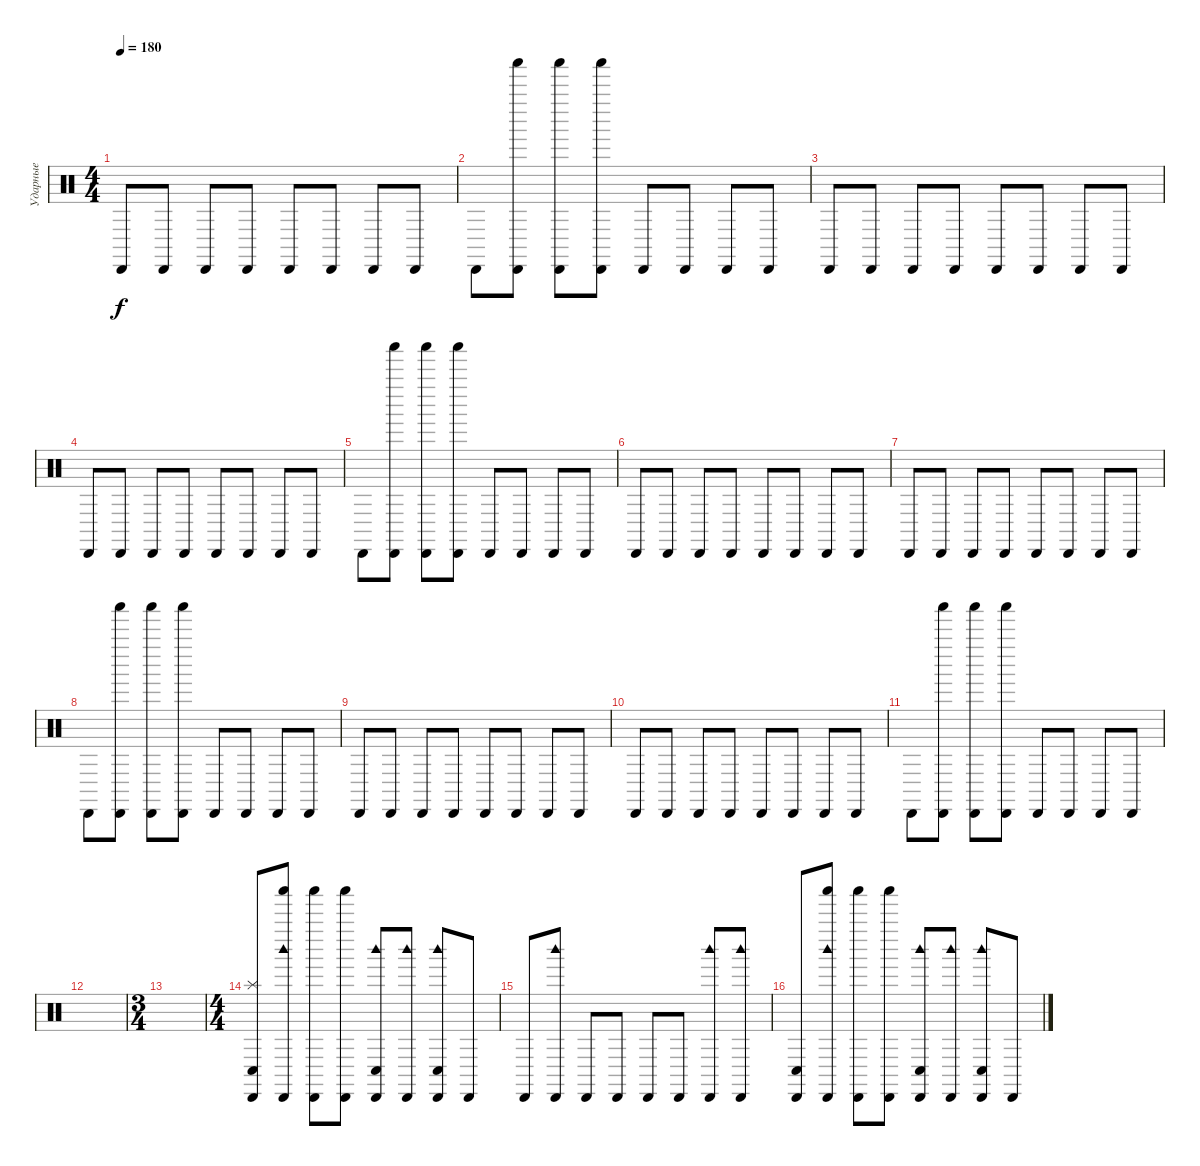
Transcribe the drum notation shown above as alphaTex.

\track ("Ударные" "Ударные") {instrument percussion}
\staff {score}
\articulation defaults
\ts (4 4)
\tempo 180
\clef neutral
\ks c "Cabasa (hit)".8{dy f} "Cabasa (hit)".8 "Cabasa (hit)".8 "Cabasa (hit)".8 "Cabasa (hit)".8 "Cabasa (hit)".8 "Cabasa (hit)".8 "Cabasa (hit)".8
|
"Cabasa (hit)".8 ("Shaker (hit)" "Cabasa (hit)").8 ("Shaker (hit)" "Cabasa (hit)").8 ("Shaker (hit)" "Cabasa (hit)").8 "Cabasa (hit)".8 "Cabasa (hit)".8 "Cabasa (hit)".8 "Cabasa (hit)".8 |
"Cabasa (hit)".8 "Cabasa (hit)".8 "Cabasa (hit)".8 "Cabasa (hit)".8 "Cabasa (hit)".8 "Cabasa (hit)".8 "Cabasa (hit)".8 "Cabasa (hit)".8 |
"Cabasa (hit)".8 "Cabasa (hit)".8 "Cabasa (hit)".8 "Cabasa (hit)".8 "Cabasa (hit)".8 "Cabasa (hit)".8 "Cabasa (hit)".8 "Cabasa (hit)".8 |
"Cabasa (hit)".8 ("Shaker (hit)" "Cabasa (hit)").8 ("Shaker (hit)" "Cabasa (hit)").8 ("Shaker (hit)" "Cabasa (hit)").8 "Cabasa (hit)".8 "Cabasa (hit)".8 "Cabasa (hit)".8 "Cabasa (hit)".8 |
"Cabasa (hit)".8 "Cabasa (hit)".8 "Cabasa (hit)".8 "Cabasa (hit)".8 "Cabasa (hit)".8 "Cabasa (hit)".8 "Cabasa (hit)".8 "Cabasa (hit)".8 |
"Cabasa (hit)".8 "Cabasa (hit)".8 "Cabasa (hit)".8 "Cabasa (hit)".8 "Cabasa (hit)".8 "Cabasa (hit)".8 "Cabasa (hit)".8 "Cabasa (hit)".8 |
"Cabasa (hit)".8 ("Shaker (hit)" "Cabasa (hit)").8 ("Shaker (hit)" "Cabasa (hit)").8 ("Shaker (hit)" "Cabasa (hit)").8 "Cabasa (hit)".8 "Cabasa (hit)".8 "Cabasa (hit)".8 "Cabasa (hit)".8 |
"Cabasa (hit)".8 "Cabasa (hit)".8 "Cabasa (hit)".8 "Cabasa (hit)".8 "Cabasa (hit)".8 "Cabasa (hit)".8 "Cabasa (hit)".8 "Cabasa (hit)".8 |
"Cabasa (hit)".8 "Cabasa (hit)".8 "Cabasa (hit)".8 "Cabasa (hit)".8 "Cabasa (hit)".8 "Cabasa (hit)".8 "Cabasa (hit)".8 "Cabasa (hit)".8 |
"Cabasa (hit)".8 ("Shaker (hit)" "Cabasa (hit)").8 ("Shaker (hit)" "Cabasa (hit)").8 ("Shaker (hit)" "Cabasa (hit)").8 "Cabasa (hit)".8 "Cabasa (hit)".8 "Cabasa (hit)".8 "Cabasa (hit)".8 |
|
\ts (3 4)
|
\ts (4 4)
("Cabasa (hit)" "Splash (hit)" "Conga low (hit)").8 ("Woodblock high (hit)" "Shaker (hit)" "Cabasa (hit)").8 ("Shaker (hit)" "Cabasa (hit)").8 ("Shaker (hit)" "Cabasa (hit)").8 ("Woodblock high (hit)" "Cabasa (hit)" "Conga low (hit)").8 ("Woodblock high (hit)" "Cabasa (hit)").8 ("Woodblock high (hit)" "Cabasa (hit)" "Conga low (hit)").8 "Cabasa (hit)".8 |
"Cabasa (hit)".8 ("Woodblock high (hit)" "Cabasa (hit)").8 "Cabasa (hit)".8 "Cabasa (hit)".8 "Cabasa (hit)".8 "Cabasa (hit)".8 ("Woodblock high (hit)" "Cabasa (hit)").8 ("Woodblock high (hit)" "Cabasa (hit)").8 |
("Cabasa (hit)" "Conga low (hit)").8 ("Woodblock high (hit)" "Shaker (hit)" "Cabasa (hit)").8 ("Shaker (hit)" "Cabasa (hit)").8 ("Shaker (hit)" "Cabasa (hit)").8 ("Woodblock high (hit)" "Cabasa (hit)" "Conga low (hit)").8 ("Woodblock high (hit)" "Cabasa (hit)").8 ("Woodblock high (hit)" "Cabasa (hit)" "Conga low (hit)").8 "Cabasa (hit)".8
